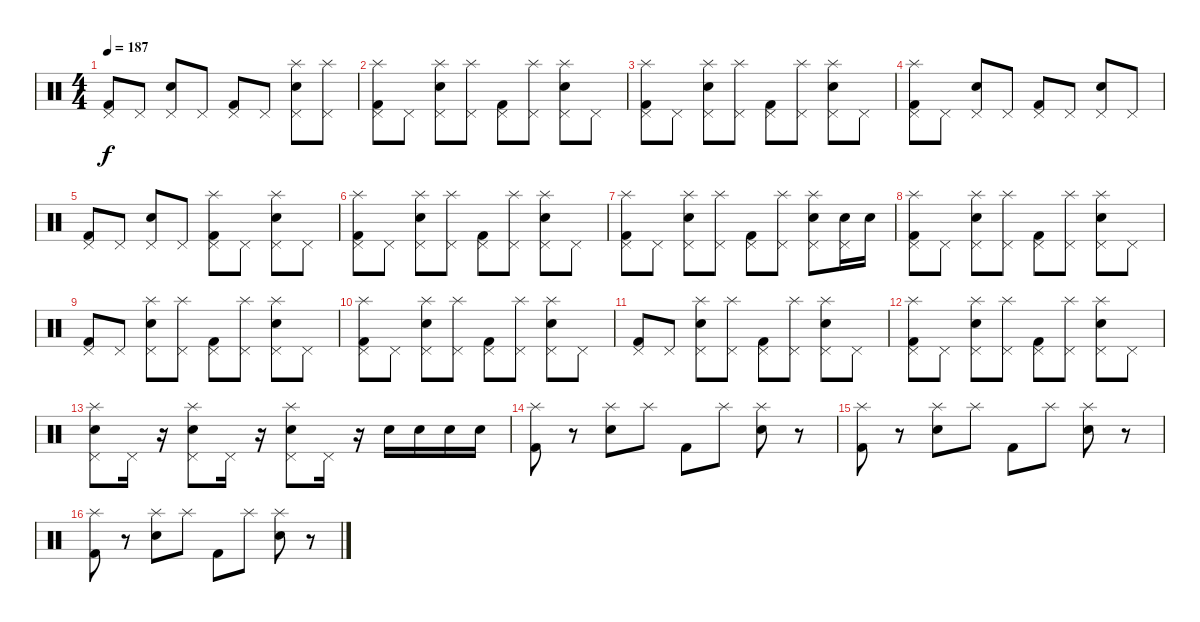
\track "" {instrument percussion}
\staff {score}
\articulation defaults
\ts (4 4)
\tempo 187
\clef neutral
\ks c
("Pedal Hi-Hat (hit)" "Kick (hit) 2").8{dy f} "Pedal Hi-Hat (hit)".8 ("Pedal Hi-Hat (hit)" "Electric Snare (hit)").8 "Pedal Hi-Hat (hit)".8 ("Pedal Hi-Hat (hit)" "Kick (hit) 2").8 "Pedal Hi-Hat (hit)".8 ("Splash (hit)" "Pedal Hi-Hat (hit)" "Electric Snare (hit)").8 ("Splash (hit)" "Pedal Hi-Hat (hit)").8 |
("Splash (hit)" "Pedal Hi-Hat (hit)" "Kick (hit) 2").8 "Pedal Hi-Hat (hit)".8 ("Pedal Hi-Hat (hit)" "Splash (hit)" "Electric Snare (hit)").8 ("Splash (hit)" "Pedal Hi-Hat (hit)").8 ("Pedal Hi-Hat (hit)" "Kick (hit) 2").8 ("Splash (hit)" "Pedal Hi-Hat (hit)").8 ("Pedal Hi-Hat (hit)" "Splash (hit)" "Electric Snare (hit)").8 "Pedal Hi-Hat (hit)".8 |
("Splash (hit)" "Pedal Hi-Hat (hit)" "Kick (hit) 2").8 "Pedal Hi-Hat (hit)".8 ("Pedal Hi-Hat (hit)" "Splash (hit)" "Electric Snare (hit)").8 ("Pedal Hi-Hat (hit)" "Splash (hit)").8 ("Pedal Hi-Hat (hit)" "Kick (hit) 2").8 ("Splash (hit)" "Pedal Hi-Hat (hit)").8 ("Pedal Hi-Hat (hit)" "Splash (hit)" "Electric Snare (hit)").8 "Pedal Hi-Hat (hit)".8 |
("Splash (hit)" "Pedal Hi-Hat (hit)" "Kick (hit) 2").8 "Pedal Hi-Hat (hit)".8 ("Pedal Hi-Hat (hit)" "Electric Snare (hit)").8 "Pedal Hi-Hat (hit)".8 ("Pedal Hi-Hat (hit)" "Kick (hit) 2").8 "Pedal Hi-Hat (hit)".8 ("Pedal Hi-Hat (hit)" "Electric Snare (hit)").8 "Pedal Hi-Hat (hit)".8 |
("Pedal Hi-Hat (hit)" "Kick (hit) 2").8 "Pedal Hi-Hat (hit)".8 ("Pedal Hi-Hat (hit)" "Electric Snare (hit)").8 "Pedal Hi-Hat (hit)".8 ("Splash (hit)" "Pedal Hi-Hat (hit)" "Kick (hit) 2").8 "Pedal Hi-Hat (hit)".8 ("Splash (hit)" "Pedal Hi-Hat (hit)" "Electric Snare (hit)").8 "Pedal Hi-Hat (hit)".8 |
("Pedal Hi-Hat (hit)" "Kick (hit) 2" "Splash (hit)").8 "Pedal Hi-Hat (hit)".8 ("Pedal Hi-Hat (hit)" "Electric Snare (hit)" "Splash (hit)").8 ("Pedal Hi-Hat (hit)" "Splash (hit)").8 ("Pedal Hi-Hat (hit)" "Kick (hit) 2").8 ("Splash (hit)" "Pedal Hi-Hat (hit)").8 ("Pedal Hi-Hat (hit)" "Electric Snare (hit)" "Splash (hit)").8 "Pedal Hi-Hat (hit)".8 |
("Splash (hit)" "Pedal Hi-Hat (hit)" "Kick (hit) 2").8 "Pedal Hi-Hat (hit)".8 ("Splash (hit)" "Pedal Hi-Hat (hit)" "Electric Snare (hit)").8 ("Splash (hit)" "Pedal Hi-Hat (hit)").8 ("Pedal Hi-Hat (hit)" "Kick (hit) 2").8 ("Splash (hit)" "Pedal Hi-Hat (hit)").8 ("Splash (hit)" "Pedal Hi-Hat (hit)" "Electric Snare (hit)").8 ("Electric Snare (hit)" "Pedal Hi-Hat (hit)").16 "Electric Snare (hit)".16 |
("Splash (hit)" "Pedal Hi-Hat (hit)" "Kick (hit) 2").8 "Pedal Hi-Hat (hit)".8 ("Splash (hit)" "Pedal Hi-Hat (hit)" "Electric Snare (hit)").8 ("Splash (hit)" "Pedal Hi-Hat (hit)").8 ("Pedal Hi-Hat (hit)" "Kick (hit) 2").8 ("Splash (hit)" "Pedal Hi-Hat (hit)").8 ("Splash (hit)" "Pedal Hi-Hat (hit)" "Electric Snare (hit)").8 "Pedal Hi-Hat (hit)".8 |
("Pedal Hi-Hat (hit)" "Kick (hit) 2").8 "Pedal Hi-Hat (hit)".8 ("Splash (hit)" "Pedal Hi-Hat (hit)" "Electric Snare (hit)").8 ("Splash (hit)" "Pedal Hi-Hat (hit)").8 ("Pedal Hi-Hat (hit)" "Kick (hit) 2").8 ("Splash (hit)" "Pedal Hi-Hat (hit)").8 ("Splash (hit)" "Pedal Hi-Hat (hit)" "Electric Snare (hit)").8 "Pedal Hi-Hat (hit)".8 |
("Splash (hit)" "Pedal Hi-Hat (hit)" "Kick (hit) 2").8 "Pedal Hi-Hat (hit)".8 ("Splash (hit)" "Pedal Hi-Hat (hit)" "Electric Snare (hit)").8 ("Splash (hit)" "Pedal Hi-Hat (hit)").8 ("Pedal Hi-Hat (hit)" "Kick (hit) 2").8 ("Splash (hit)" "Pedal Hi-Hat (hit)").8 ("Splash (hit)" "Pedal Hi-Hat (hit)" "Electric Snare (hit)").8 "Pedal Hi-Hat (hit)".8 |
("Pedal Hi-Hat (hit)" "Kick (hit) 2").8 "Pedal Hi-Hat (hit)".8 ("Splash (hit)" "Pedal Hi-Hat (hit)" "Electric Snare (hit)").8 ("Splash (hit)" "Pedal Hi-Hat (hit)").8 ("Pedal Hi-Hat (hit)" "Kick (hit) 2").8 ("Splash (hit)" "Pedal Hi-Hat (hit)").8 ("Splash (hit)" "Pedal Hi-Hat (hit)" "Electric Snare (hit)").8 "Pedal Hi-Hat (hit)".8 |
("Splash (hit)" "Pedal Hi-Hat (hit)" "Kick (hit) 2").8 "Pedal Hi-Hat (hit)".8 ("Splash (hit)" "Pedal Hi-Hat (hit)" "Electric Snare (hit)").8 ("Splash (hit)" "Pedal Hi-Hat (hit)").8 ("Pedal Hi-Hat (hit)" "Kick (hit) 2").8 ("Splash (hit)" "Pedal Hi-Hat (hit)").8 ("Splash (hit)" "Pedal Hi-Hat (hit)" "Electric Snare (hit)").8 "Pedal Hi-Hat (hit)".8 |
("Pedal Hi-Hat (hit)" "Splash (hit)" "Electric Snare (hit)").8 "Pedal Hi-Hat (hit)".16 r.16 ("Pedal Hi-Hat (hit)" "Splash (hit)" "Electric Snare (hit)").8 "Pedal Hi-Hat (hit)".16 r.16 ("Pedal Hi-Hat (hit)" "Splash (hit)" "Electric Snare (hit)").8 "Pedal Hi-Hat (hit)".16 r.16 "Electric Snare (hit)".16 "Electric Snare (hit)".16 "Electric Snare (hit)".16 "Electric Snare (hit)".16 |
("Splash (hit)" "Kick (hit) 2").8 r.8 ("Splash (hit)" "Electric Snare (hit)").8 "Splash (hit)".8 "Kick (hit) 2".8 "Splash (hit)".8 ("Splash (hit)" "Electric Snare (hit)").8 r.8 |
("Splash (hit)" "Kick (hit) 2").8 r.8 ("Splash (hit)" "Electric Snare (hit)").8 "Splash (hit)".8 "Kick (hit) 2".8 "Splash (hit)".8 ("Splash (hit)" "Electric Snare (hit)").8 r.8 |
("Splash (hit)" "Kick (hit) 2").8 r.8 ("Splash (hit)" "Electric Snare (hit)").8 "Splash (hit)".8 "Kick (hit) 2".8 "Splash (hit)".8 ("Splash (hit)" "Electric Snare (hit)").8 r.8
